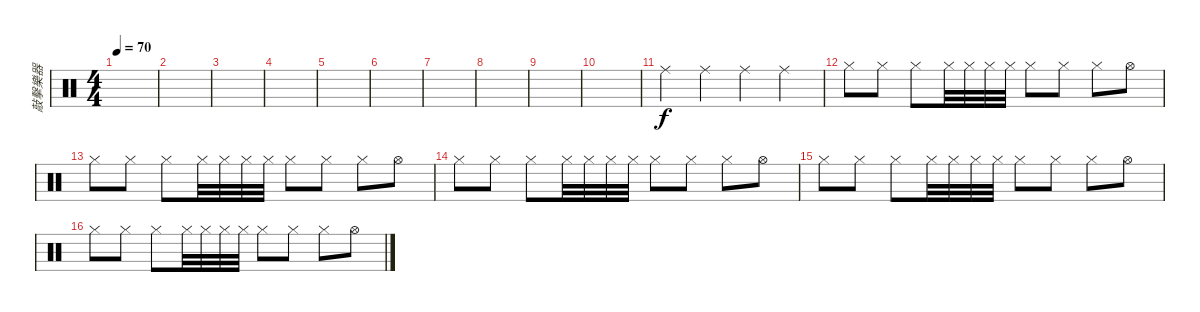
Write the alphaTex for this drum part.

\track ("敲擊樂器" "敲擊樂器") {instrument percussion}
\staff {score}
\articulation defaults
\ts (4 4)
\tempo 70
\clef neutral
\ks c
|
|
|
|
|
|
|
|
|
|
"Ride (middle)".4 "Ride (middle)".4 "Ride (middle)".4 "Ride (middle)".4 |
"Hi-Hat (closed)".8 "Hi-Hat (closed)".8 "Hi-Hat (closed)".8 "Hi-Hat (closed)".32 "Hi-Hat (closed)".32 "Hi-Hat (closed)".32 "Hi-Hat (closed)".32 "Hi-Hat (closed)".8 "Hi-Hat (closed)".8 "Hi-Hat (closed)".8 "Hi-Hat (open)".8 |
"Hi-Hat (closed)".8 "Hi-Hat (closed)".8 "Hi-Hat (closed)".8 "Hi-Hat (closed)".32 "Hi-Hat (closed)".32 "Hi-Hat (closed)".32 "Hi-Hat (closed)".32 "Hi-Hat (closed)".8 "Hi-Hat (closed)".8 "Hi-Hat (closed)".8 "Hi-Hat (open)".8 |
"Hi-Hat (closed)".8 "Hi-Hat (closed)".8 "Hi-Hat (closed)".8 "Hi-Hat (closed)".32 "Hi-Hat (closed)".32 "Hi-Hat (closed)".32 "Hi-Hat (closed)".32 "Hi-Hat (closed)".8 "Hi-Hat (closed)".8 "Hi-Hat (closed)".8 "Hi-Hat (open)".8 |
"Hi-Hat (closed)".8 "Hi-Hat (closed)".8 "Hi-Hat (closed)".8 "Hi-Hat (closed)".32 "Hi-Hat (closed)".32 "Hi-Hat (closed)".32 "Hi-Hat (closed)".32 "Hi-Hat (closed)".8 "Hi-Hat (closed)".8 "Hi-Hat (closed)".8 "Hi-Hat (open)".8 |
"Hi-Hat (closed)".8 "Hi-Hat (closed)".8 "Hi-Hat (closed)".8 "Hi-Hat (closed)".32 "Hi-Hat (closed)".32 "Hi-Hat (closed)".32 "Hi-Hat (closed)".32 "Hi-Hat (closed)".8 "Hi-Hat (closed)".8 "Hi-Hat (closed)".8 "Hi-Hat (open)".8
